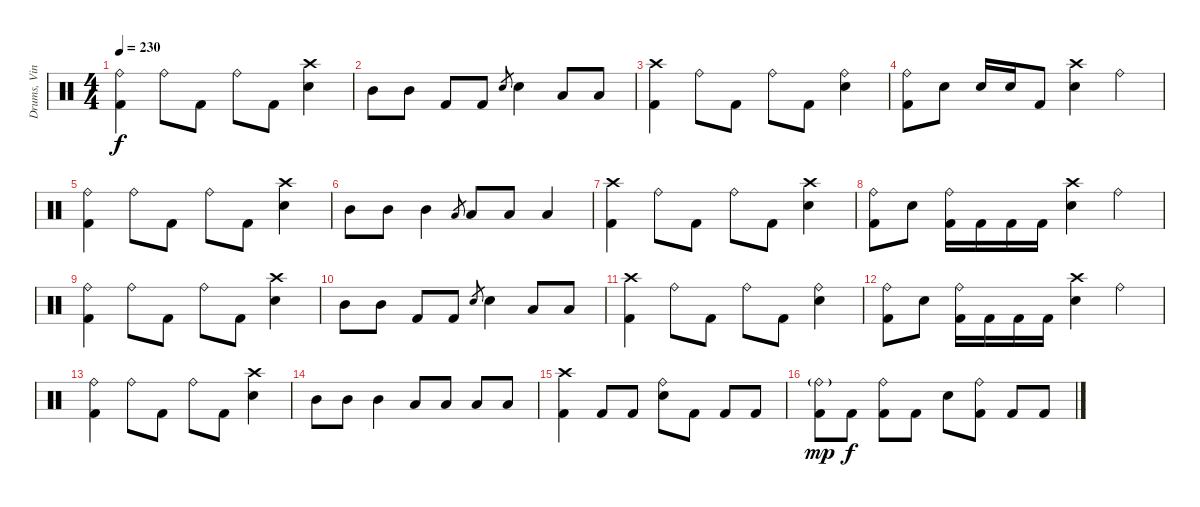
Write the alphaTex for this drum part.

\track ("Drums, Vinnie" "Drums, Vin") {instrument percussion}
\staff {score}
\articulation defaults
\ts (4 4)
\tempo 230
\clef neutral
\ks c
("Ride (bell)" "Kick (hit) 2").4{dy f} "Ride (bell)".8 "Kick (hit) 2".8 "Ride (bell)".8 "Kick (hit) 2".8 ("Crash high (hit)" "Electric Snare (hit)").4 |
"Mid Tom (hit)".8 "Mid Tom (hit)".8 "Kick (hit) 2".8 "Kick (hit) 2".8 "Electric Snare (hit)".8{gr} "Electric Snare (hit)".4 "Low Tom (hit)".8 "Low Tom (hit)".8 |
("Crash high (hit)" "Kick (hit) 2").4 "Ride (bell)".8 "Kick (hit) 2".8 "Ride (bell)".8 "Kick (hit) 2".8 ("Ride (bell)" "Electric Snare (hit)").4 |
("Ride (bell)" "Kick (hit) 2").8 "Electric Snare (hit)".8 "Electric Snare (hit)".16 "Electric Snare (hit)".16 "Kick (hit) 2".8 ("Crash high (hit)" "Electric Snare (hit)").4 "Ride (bell)".4 |
("Ride (bell)" "Kick (hit) 2").4 "Ride (bell)".8 "Kick (hit) 2".8 "Ride (bell)".8 "Kick (hit) 2".8 ("Crash high (hit)" "Electric Snare (hit)").4 |
"Mid Tom (hit)".8 "Mid Tom (hit)".8 "Mid Tom (hit)".4 "Low Tom (hit)".8{gr} "Low Tom (hit)".8 "Low Tom (hit)".8 "Low Tom (hit)".4 |
("Crash high (hit)" "Kick (hit) 2").4 "Ride (bell)".8 "Kick (hit) 2".8 "Ride (bell)".8 "Kick (hit) 2".8 ("Crash high (hit)" "Electric Snare (hit)").4 |
("Ride (bell)" "Kick (hit) 2").8 "Electric Snare (hit)".8 ("Ride (bell)" "Kick (hit) 2").16 "Kick (hit) 2".16 "Kick (hit) 2".16 "Kick (hit) 2".16 ("Crash high (hit)" "Electric Snare (hit)").4 "Ride (bell)".4 |
("Ride (bell)" "Kick (hit) 2").4 "Ride (bell)".8 "Kick (hit) 2".8 "Ride (bell)".8 "Kick (hit) 2".8 ("Crash high (hit)" "Electric Snare (hit)").4 |
"Mid Tom (hit)".8 "Mid Tom (hit)".8 "Kick (hit) 2".8 "Kick (hit) 2".8 "Electric Snare (hit)".8{gr} "Electric Snare (hit)".4 "Low Tom (hit)".8 "Low Tom (hit)".8 |
("Crash high (hit)" "Kick (hit) 2").4 "Ride (bell)".8 "Kick (hit) 2".8 "Ride (bell)".8 "Kick (hit) 2".8 ("Ride (bell)" "Electric Snare (hit)").4 |
("Ride (bell)" "Kick (hit) 2").8 "Electric Snare (hit)".8 ("Ride (bell)" "Kick (hit) 2").16 "Kick (hit) 2".16 "Kick (hit) 2".16 "Kick (hit) 2".16 ("Crash high (hit)" "Electric Snare (hit)").4 "Ride (bell)".4 |
("Ride (bell)" "Kick (hit) 2").4 "Ride (bell)".8 "Kick (hit) 2".8 "Ride (bell)".8 "Kick (hit) 2".8 ("Crash high (hit)" "Electric Snare (hit)").4 |
"Mid Tom (hit)".8 "Mid Tom (hit)".8 "Mid Tom (hit)".4 "Low Tom (hit)".8 "Low Tom (hit)".8 "Low Tom (hit)".8 "Low Tom (hit)".8 |
("Crash high (hit)" "Kick (hit) 2").4 "Kick (hit) 2".8 "Kick (hit) 2".8 ("Ride (bell)" "Electric Snare (hit)").8 "Kick (hit) 2".8 "Kick (hit) 2".8 "Kick (hit) 2".8 |
("Ride (bell)"{g} "Kick (hit) 2").8{dy mp} "Kick (hit) 2".8{dy f} ("Ride (bell)" "Kick (hit) 2").8 "Kick (hit) 2".8 "Electric Snare (hit)".8 ("Ride (bell)" "Kick (hit) 2").8 "Kick (hit) 2".8 "Kick (hit) 2".8
